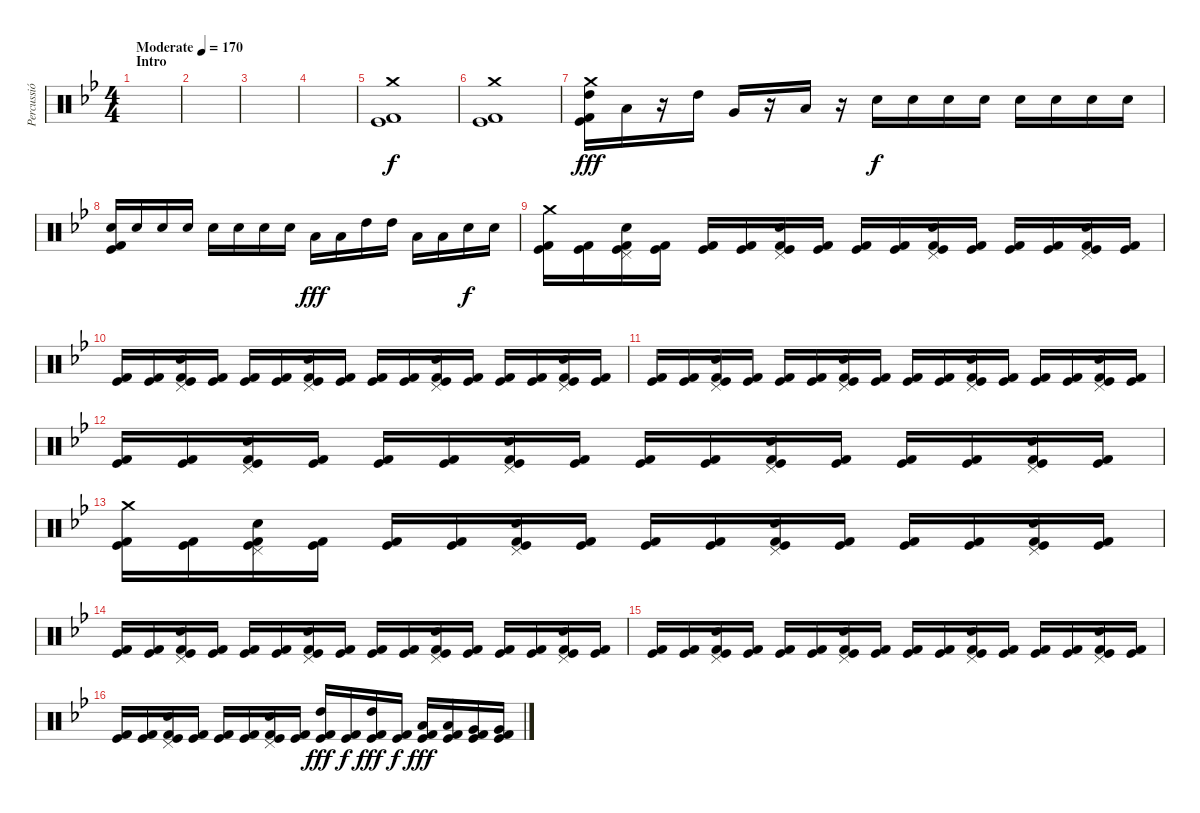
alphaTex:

\track ("Percussió" "Percussió") {instrument percussion}
\staff {score}
\articulation defaults
\ts (4 4)
\section ("" "Intro")
\tempo (170 "Moderate")
\clef neutral
\ks gminor
|
|
|
|
("Crash medium (hit)" "Kick (hit)" "Kick (hit) 2").1 |
("Crash medium (hit)" "Kick (hit)" "Kick (hit) 2").1 |
("Crash medium (hit)" "High Tom (hit)" "Kick (hit)" "Kick (hit) 2").16{dy fff} "Low Tom (hit)".16 r.16 "High Tom (hit)".16 "Very Low Tom (hit)".16 r.16 "Low Floor Tom (hit)".16 r.16 "Electric Snare (hit)".16{dy f} "Electric Snare (hit)".16 "Electric Snare (hit)".16 "Electric Snare (hit)".16 "Electric Snare (hit)".16 "Electric Snare (hit)".16 "Electric Snare (hit)".16 "Electric Snare (hit)".16 |
("Electric Snare (hit)" "Kick (hit)" "Kick (hit) 2").16 "Electric Snare (hit)".16 "Electric Snare (hit)".16 "Electric Snare (hit)".16 "Electric Snare (hit)".16 "Electric Snare (hit)".16 "Electric Snare (hit)".16 "Electric Snare (hit)".16 "Low Tom (hit)".16{dy fff} "Low Tom (hit)".16 "High Tom (hit)".16 "High Tom (hit)".16 "Low Tom (hit)".16 "Low Tom (hit)".16 "Electric Snare (hit)".16{dy f} "Electric Snare (hit)".16 |
("Crash medium (hit)" "Kick (hit)" "Kick (hit) 2").16 ("Kick (hit)" "Kick (hit) 2").16 ("Pedal Hi-Hat (hit)" "Electric Snare (hit)" "Kick (hit)" "Kick (hit) 2").16 ("Kick (hit)" "Kick (hit) 2").16 ("Kick (hit)" "Kick (hit) 2").16 ("Kick (hit)" "Kick (hit) 2").16 ("Pedal Hi-Hat (hit)" "Electric Snare (hit)" "Kick (hit)" "Kick (hit) 2").16 ("Kick (hit)" "Kick (hit) 2").16 ("Kick (hit)" "Kick (hit) 2").16 ("Kick (hit)" "Kick (hit) 2").16 ("Pedal Hi-Hat (hit)" "Electric Snare (hit)" "Kick (hit)" "Kick (hit) 2").16 ("Kick (hit)" "Kick (hit) 2").16 ("Kick (hit)" "Kick (hit) 2").16 ("Kick (hit)" "Kick (hit) 2").16 ("Pedal Hi-Hat (hit)" "Electric Snare (hit)" "Kick (hit)" "Kick (hit) 2").16 ("Kick (hit)" "Kick (hit) 2").16 |
("Kick (hit)" "Kick (hit) 2").16 ("Kick (hit)" "Kick (hit) 2").16 ("Pedal Hi-Hat (hit)" "Electric Snare (hit)" "Kick (hit)" "Kick (hit) 2").16 ("Kick (hit)" "Kick (hit) 2").16 ("Kick (hit)" "Kick (hit) 2").16 ("Kick (hit)" "Kick (hit) 2").16 ("Pedal Hi-Hat (hit)" "Electric Snare (hit)" "Kick (hit)" "Kick (hit) 2").16 ("Kick (hit)" "Kick (hit) 2").16 ("Kick (hit)" "Kick (hit) 2").16 ("Kick (hit)" "Kick (hit) 2").16 ("Pedal Hi-Hat (hit)" "Electric Snare (hit)" "Kick (hit)" "Kick (hit) 2").16 ("Kick (hit)" "Kick (hit) 2").16 ("Kick (hit)" "Kick (hit) 2").16 ("Kick (hit)" "Kick (hit) 2").16 ("Pedal Hi-Hat (hit)" "Electric Snare (hit)" "Kick (hit)" "Kick (hit) 2").16 ("Kick (hit)" "Kick (hit) 2").16 |
("Kick (hit)" "Kick (hit) 2").16 ("Kick (hit)" "Kick (hit) 2").16 ("Pedal Hi-Hat (hit)" "Electric Snare (hit)" "Kick (hit)" "Kick (hit) 2").16 ("Kick (hit)" "Kick (hit) 2").16 ("Kick (hit)" "Kick (hit) 2").16 ("Kick (hit)" "Kick (hit) 2").16 ("Pedal Hi-Hat (hit)" "Electric Snare (hit)" "Kick (hit)" "Kick (hit) 2").16 ("Kick (hit)" "Kick (hit) 2").16 ("Kick (hit)" "Kick (hit) 2").16 ("Kick (hit)" "Kick (hit) 2").16 ("Pedal Hi-Hat (hit)" "Electric Snare (hit)" "Kick (hit)" "Kick (hit) 2").16 ("Kick (hit)" "Kick (hit) 2").16 ("Kick (hit)" "Kick (hit) 2").16 ("Kick (hit)" "Kick (hit) 2").16 ("Pedal Hi-Hat (hit)" "Electric Snare (hit)" "Kick (hit)" "Kick (hit) 2").16 ("Kick (hit)" "Kick (hit) 2").16 |
("Kick (hit)" "Kick (hit) 2").16 ("Kick (hit)" "Kick (hit) 2").16 ("Pedal Hi-Hat (hit)" "Electric Snare (hit)" "Kick (hit)" "Kick (hit) 2").16 ("Kick (hit)" "Kick (hit) 2").16 ("Kick (hit)" "Kick (hit) 2").16 ("Kick (hit)" "Kick (hit) 2").16 ("Pedal Hi-Hat (hit)" "Electric Snare (hit)" "Kick (hit)" "Kick (hit) 2").16 ("Kick (hit)" "Kick (hit) 2").16 ("Kick (hit)" "Kick (hit) 2").16 ("Kick (hit)" "Kick (hit) 2").16 ("Pedal Hi-Hat (hit)" "Electric Snare (hit)" "Kick (hit)" "Kick (hit) 2").16 ("Kick (hit)" "Kick (hit) 2").16 ("Kick (hit)" "Kick (hit) 2").16 ("Kick (hit)" "Kick (hit) 2").16 ("Pedal Hi-Hat (hit)" "Electric Snare (hit)" "Kick (hit)" "Kick (hit) 2").16 ("Kick (hit)" "Kick (hit) 2").16 |
("Crash medium (hit)" "Kick (hit)" "Kick (hit) 2").16 ("Kick (hit)" "Kick (hit) 2").16 ("Pedal Hi-Hat (hit)" "Electric Snare (hit)" "Kick (hit)" "Kick (hit) 2").16 ("Kick (hit)" "Kick (hit) 2").16 ("Kick (hit)" "Kick (hit) 2").16 ("Kick (hit)" "Kick (hit) 2").16 ("Pedal Hi-Hat (hit)" "Electric Snare (hit)" "Kick (hit)" "Kick (hit) 2").16 ("Kick (hit)" "Kick (hit) 2").16 ("Kick (hit)" "Kick (hit) 2").16 ("Kick (hit)" "Kick (hit) 2").16 ("Pedal Hi-Hat (hit)" "Electric Snare (hit)" "Kick (hit)" "Kick (hit) 2").16 ("Kick (hit)" "Kick (hit) 2").16 ("Kick (hit)" "Kick (hit) 2").16 ("Kick (hit)" "Kick (hit) 2").16 ("Pedal Hi-Hat (hit)" "Electric Snare (hit)" "Kick (hit)" "Kick (hit) 2").16 ("Kick (hit)" "Kick (hit) 2").16 |
("Kick (hit)" "Kick (hit) 2").16 ("Kick (hit)" "Kick (hit) 2").16 ("Pedal Hi-Hat (hit)" "Electric Snare (hit)" "Kick (hit)" "Kick (hit) 2").16 ("Kick (hit)" "Kick (hit) 2").16 ("Kick (hit)" "Kick (hit) 2").16 ("Kick (hit)" "Kick (hit) 2").16 ("Pedal Hi-Hat (hit)" "Electric Snare (hit)" "Kick (hit)" "Kick (hit) 2").16 ("Kick (hit)" "Kick (hit) 2").16 ("Kick (hit)" "Kick (hit) 2").16 ("Kick (hit)" "Kick (hit) 2").16 ("Pedal Hi-Hat (hit)" "Electric Snare (hit)" "Kick (hit)" "Kick (hit) 2").16 ("Kick (hit)" "Kick (hit) 2").16 ("Kick (hit)" "Kick (hit) 2").16 ("Kick (hit)" "Kick (hit) 2").16 ("Pedal Hi-Hat (hit)" "Electric Snare (hit)" "Kick (hit)" "Kick (hit) 2").16 ("Kick (hit)" "Kick (hit) 2").16 |
("Kick (hit)" "Kick (hit) 2").16 ("Kick (hit)" "Kick (hit) 2").16 ("Pedal Hi-Hat (hit)" "Electric Snare (hit)" "Kick (hit)" "Kick (hit) 2").16 ("Kick (hit)" "Kick (hit) 2").16 ("Kick (hit)" "Kick (hit) 2").16 ("Kick (hit)" "Kick (hit) 2").16 ("Pedal Hi-Hat (hit)" "Electric Snare (hit)" "Kick (hit)" "Kick (hit) 2").16 ("Kick (hit)" "Kick (hit) 2").16 ("Kick (hit)" "Kick (hit) 2").16 ("Kick (hit)" "Kick (hit) 2").16 ("Pedal Hi-Hat (hit)" "Electric Snare (hit)" "Kick (hit)" "Kick (hit) 2").16 ("Kick (hit)" "Kick (hit) 2").16 ("Kick (hit)" "Kick (hit) 2").16 ("Kick (hit)" "Kick (hit) 2").16 ("Pedal Hi-Hat (hit)" "Electric Snare (hit)" "Kick (hit)" "Kick (hit) 2").16 ("Kick (hit)" "Kick (hit) 2").16 |
("Kick (hit)" "Kick (hit) 2").16 ("Kick (hit)" "Kick (hit) 2").16 ("Pedal Hi-Hat (hit)" "Electric Snare (hit)" "Kick (hit)" "Kick (hit) 2").16 ("Kick (hit)" "Kick (hit) 2").16 ("Kick (hit)" "Kick (hit) 2").16 ("Kick (hit)" "Kick (hit) 2").16 ("Pedal Hi-Hat (hit)" "Electric Snare (hit)" "Kick (hit)" "Kick (hit) 2").16 ("Kick (hit)" "Kick (hit) 2").16 ("High Tom (hit)" "Kick (hit)" "Kick (hit) 2").16{dy fff} ("Kick (hit)" "Kick (hit) 2").16{dy f} ("High Tom (hit)" "Kick (hit)" "Kick (hit) 2").16{dy fff} ("Kick (hit)" "Kick (hit) 2").16{dy f} ("Low Tom (hit)" "Kick (hit)" "Kick (hit) 2").16{dy fff} ("Low Tom (hit)" "Kick (hit)" "Kick (hit) 2").16 ("Very Low Tom (hit)" "Kick (hit)" "Kick (hit) 2").16 ("Very Low Tom (hit)" "Kick (hit)" "Kick (hit) 2").16
